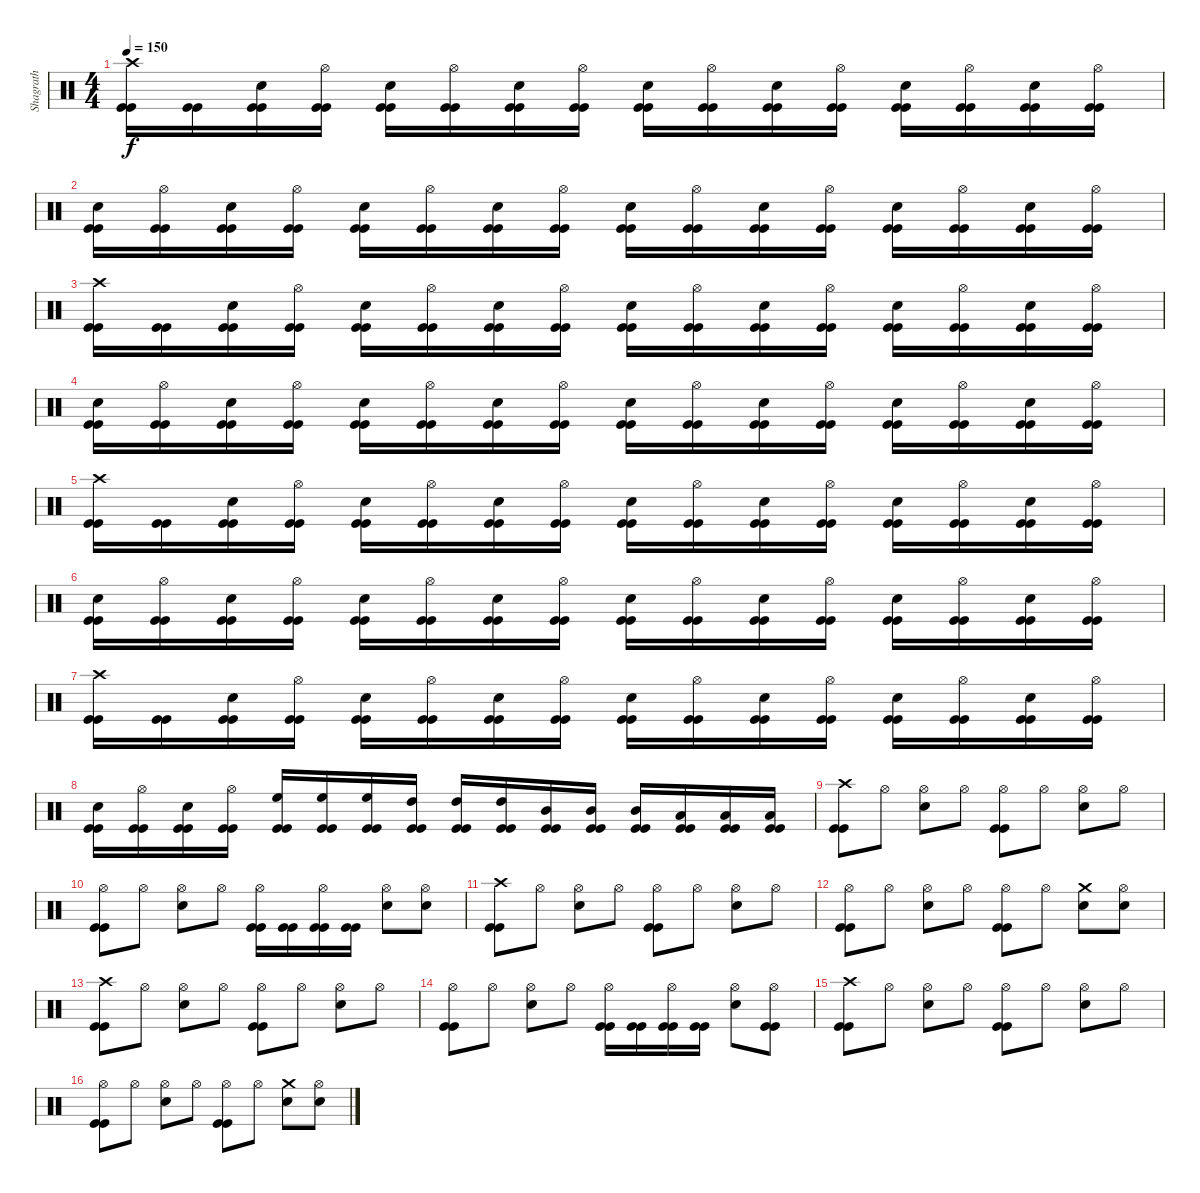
\track ("Shagrath" "Shagrath") {instrument percussion}
\staff {score}
\articulation defaults
\ts (4 4)
\tempo 150
\clef neutral
\ks c
("Kick (hit)" "Kick (hit)" "Crash high (hit)").16{dy f} ("Kick (hit)" "Kick (hit)").16 ("Kick (hit)" "Kick (hit)" "Electric Snare (hit)").16 ("Kick (hit)" "Kick (hit)" "Hi-Hat (open)").16 ("Kick (hit)" "Kick (hit)" "Electric Snare (hit)").16 ("Kick (hit)" "Kick (hit)" "Hi-Hat (open)").16 ("Kick (hit)" "Kick (hit)" "Electric Snare (hit)").16 ("Kick (hit)" "Kick (hit)" "Hi-Hat (open)").16 ("Kick (hit)" "Kick (hit)" "Electric Snare (hit)").16 ("Kick (hit)" "Kick (hit)" "Hi-Hat (open)").16 ("Kick (hit)" "Kick (hit)" "Electric Snare (hit)").16 ("Kick (hit)" "Kick (hit)" "Hi-Hat (open)").16 ("Kick (hit)" "Kick (hit)" "Electric Snare (hit)").16 ("Kick (hit)" "Kick (hit)" "Hi-Hat (open)").16 ("Kick (hit)" "Kick (hit)" "Electric Snare (hit)").16 ("Kick (hit)" "Kick (hit)" "Hi-Hat (open)").16 |
("Kick (hit)" "Kick (hit)" "Electric Snare (hit)").16 ("Kick (hit)" "Kick (hit)" "Hi-Hat (open)").16 ("Kick (hit)" "Kick (hit)" "Electric Snare (hit)").16 ("Kick (hit)" "Kick (hit)" "Hi-Hat (open)").16 ("Kick (hit)" "Kick (hit)" "Electric Snare (hit)").16 ("Kick (hit)" "Kick (hit)" "Hi-Hat (open)").16 ("Kick (hit)" "Kick (hit)" "Electric Snare (hit)").16 ("Kick (hit)" "Kick (hit)" "Hi-Hat (open)").16 ("Kick (hit)" "Kick (hit)" "Electric Snare (hit)").16 ("Kick (hit)" "Kick (hit)" "Hi-Hat (open)").16 ("Kick (hit)" "Kick (hit)" "Electric Snare (hit)").16 ("Kick (hit)" "Kick (hit)" "Hi-Hat (open)").16 ("Kick (hit)" "Kick (hit)" "Electric Snare (hit)").16 ("Kick (hit)" "Kick (hit)" "Hi-Hat (open)").16 ("Kick (hit)" "Kick (hit)" "Electric Snare (hit)").16 ("Kick (hit)" "Kick (hit)" "Hi-Hat (open)").16 |
("Kick (hit)" "Kick (hit)" "Crash high (hit)").16 ("Kick (hit)" "Kick (hit)").16 ("Kick (hit)" "Kick (hit)" "Electric Snare (hit)").16 ("Kick (hit)" "Kick (hit)" "Hi-Hat (open)").16 ("Kick (hit)" "Kick (hit)" "Electric Snare (hit)").16 ("Kick (hit)" "Kick (hit)" "Hi-Hat (open)").16 ("Kick (hit)" "Kick (hit)" "Electric Snare (hit)").16 ("Kick (hit)" "Kick (hit)" "Hi-Hat (open)").16 ("Kick (hit)" "Kick (hit)" "Electric Snare (hit)").16 ("Kick (hit)" "Kick (hit)" "Hi-Hat (open)").16 ("Kick (hit)" "Kick (hit)" "Electric Snare (hit)").16 ("Kick (hit)" "Kick (hit)" "Hi-Hat (open)").16 ("Kick (hit)" "Kick (hit)" "Electric Snare (hit)").16 ("Kick (hit)" "Kick (hit)" "Hi-Hat (open)").16 ("Kick (hit)" "Kick (hit)" "Electric Snare (hit)").16 ("Kick (hit)" "Kick (hit)" "Hi-Hat (open)").16 |
("Kick (hit)" "Kick (hit)" "Electric Snare (hit)").16 ("Kick (hit)" "Kick (hit)" "Hi-Hat (open)").16 ("Kick (hit)" "Kick (hit)" "Electric Snare (hit)").16 ("Kick (hit)" "Kick (hit)" "Hi-Hat (open)").16 ("Kick (hit)" "Kick (hit)" "Electric Snare (hit)").16 ("Kick (hit)" "Kick (hit)" "Hi-Hat (open)").16 ("Kick (hit)" "Kick (hit)" "Electric Snare (hit)").16 ("Kick (hit)" "Kick (hit)" "Hi-Hat (open)").16 ("Kick (hit)" "Kick (hit)" "Electric Snare (hit)").16 ("Kick (hit)" "Kick (hit)" "Hi-Hat (open)").16 ("Kick (hit)" "Kick (hit)" "Electric Snare (hit)").16 ("Kick (hit)" "Kick (hit)" "Hi-Hat (open)").16 ("Kick (hit)" "Kick (hit)" "Electric Snare (hit)").16 ("Kick (hit)" "Kick (hit)" "Hi-Hat (open)").16 ("Kick (hit)" "Kick (hit)" "Electric Snare (hit)").16 ("Kick (hit)" "Kick (hit)" "Hi-Hat (open)").16 |
("Kick (hit)" "Kick (hit)" "Crash high (hit)").16 ("Kick (hit)" "Kick (hit)").16 ("Kick (hit)" "Kick (hit)" "Electric Snare (hit)").16 ("Kick (hit)" "Kick (hit)" "Hi-Hat (open)").16 ("Kick (hit)" "Kick (hit)" "Electric Snare (hit)").16 ("Kick (hit)" "Kick (hit)" "Hi-Hat (open)").16 ("Kick (hit)" "Kick (hit)" "Electric Snare (hit)").16 ("Kick (hit)" "Kick (hit)" "Hi-Hat (open)").16 ("Kick (hit)" "Kick (hit)" "Electric Snare (hit)").16 ("Kick (hit)" "Kick (hit)" "Hi-Hat (open)").16 ("Kick (hit)" "Kick (hit)" "Electric Snare (hit)").16 ("Kick (hit)" "Kick (hit)" "Hi-Hat (open)").16 ("Kick (hit)" "Kick (hit)" "Electric Snare (hit)").16 ("Kick (hit)" "Kick (hit)" "Hi-Hat (open)").16 ("Kick (hit)" "Kick (hit)" "Electric Snare (hit)").16 ("Kick (hit)" "Kick (hit)" "Hi-Hat (open)").16 |
("Kick (hit)" "Kick (hit)" "Electric Snare (hit)").16 ("Kick (hit)" "Kick (hit)" "Hi-Hat (open)").16 ("Kick (hit)" "Kick (hit)" "Electric Snare (hit)").16 ("Kick (hit)" "Kick (hit)" "Hi-Hat (open)").16 ("Kick (hit)" "Kick (hit)" "Electric Snare (hit)").16 ("Kick (hit)" "Kick (hit)" "Hi-Hat (open)").16 ("Kick (hit)" "Kick (hit)" "Electric Snare (hit)").16 ("Kick (hit)" "Kick (hit)" "Hi-Hat (open)").16 ("Kick (hit)" "Kick (hit)" "Electric Snare (hit)").16 ("Kick (hit)" "Kick (hit)" "Hi-Hat (open)").16 ("Kick (hit)" "Kick (hit)" "Electric Snare (hit)").16 ("Kick (hit)" "Kick (hit)" "Hi-Hat (open)").16 ("Kick (hit)" "Kick (hit)" "Electric Snare (hit)").16 ("Kick (hit)" "Kick (hit)" "Hi-Hat (open)").16 ("Kick (hit)" "Kick (hit)" "Electric Snare (hit)").16 ("Kick (hit)" "Kick (hit)" "Hi-Hat (open)").16 |
("Kick (hit)" "Kick (hit)" "Crash high (hit)").16 ("Kick (hit)" "Kick (hit)").16 ("Kick (hit)" "Kick (hit)" "Electric Snare (hit)").16 ("Kick (hit)" "Kick (hit)" "Hi-Hat (open)").16 ("Kick (hit)" "Kick (hit)" "Electric Snare (hit)").16 ("Kick (hit)" "Kick (hit)" "Hi-Hat (open)").16 ("Kick (hit)" "Kick (hit)" "Electric Snare (hit)").16 ("Kick (hit)" "Kick (hit)" "Hi-Hat (open)").16 ("Kick (hit)" "Kick (hit)" "Electric Snare (hit)").16 ("Kick (hit)" "Kick (hit)" "Hi-Hat (open)").16 ("Kick (hit)" "Kick (hit)" "Electric Snare (hit)").16 ("Kick (hit)" "Kick (hit)" "Hi-Hat (open)").16 ("Kick (hit)" "Kick (hit)" "Electric Snare (hit)").16 ("Kick (hit)" "Kick (hit)" "Hi-Hat (open)").16 ("Kick (hit)" "Kick (hit)" "Electric Snare (hit)").16 ("Kick (hit)" "Kick (hit)" "Hi-Hat (open)").16 |
("Kick (hit)" "Kick (hit)" "Electric Snare (hit)").16 ("Kick (hit)" "Kick (hit)" "Hi-Hat (open)").16 ("Kick (hit)" "Kick (hit)" "Electric Snare (hit)").16 ("Kick (hit)" "Kick (hit)" "Hi-Hat (open)").16 ("Kick (hit)" "Kick (hit)" "High Floor Tom (hit)").16 ("Kick (hit)" "Kick (hit)" "High Floor Tom (hit)").16 ("Kick (hit)" "Kick (hit)" "High Floor Tom (hit)").16 ("Kick (hit)" "Kick (hit)" "High Tom (hit)").16 ("Kick (hit)" "Kick (hit)" "High Tom (hit)").16 ("Kick (hit)" "Kick (hit)" "High Tom (hit)").16 ("Kick (hit)" "Kick (hit)" "Mid Tom (hit)").16 ("Kick (hit)" "Kick (hit)" "Mid Tom (hit)").16 ("Kick (hit)" "Kick (hit)" "Mid Tom (hit)").16 ("Kick (hit)" "Kick (hit)" "Low Tom (hit)").16 ("Kick (hit)" "Kick (hit)" "Low Tom (hit)").16 ("Kick (hit)" "Kick (hit)" "Low Tom (hit)").16 |
("Kick (hit)" "Kick (hit)" "Crash high (hit)").8 "Hi-Hat (open)".8 ("Electric Snare (hit)" "Hi-Hat (open)").8 "Hi-Hat (open)".8 ("Kick (hit)" "Kick (hit)" "Hi-Hat (open)").8 "Hi-Hat (open)".8 ("Electric Snare (hit)" "Hi-Hat (open)").8 "Hi-Hat (open)".8 |
("Kick (hit)" "Kick (hit)" "Hi-Hat (open)").8 "Hi-Hat (open)".8 ("Electric Snare (hit)" "Hi-Hat (open)").8 "Hi-Hat (open)".8 ("Kick (hit)" "Kick (hit)" "Hi-Hat (open)").16 ("Kick (hit)" "Kick (hit)").16 ("Kick (hit)" "Kick (hit)" "Hi-Hat (open)").16 ("Kick (hit)" "Kick (hit)").16 ("Electric Snare (hit)" "Hi-Hat (open)").8 ("Electric Snare (hit)" "Hi-Hat (open)").8 |
("Kick (hit)" "Kick (hit)" "Crash high (hit)").8 "Hi-Hat (open)".8 ("Electric Snare (hit)" "Hi-Hat (open)").8 "Hi-Hat (open)".8 ("Kick (hit)" "Kick (hit)" "Hi-Hat (open)").8 "Hi-Hat (open)".8 ("Electric Snare (hit)" "Hi-Hat (open)").8 "Hi-Hat (open)".8 |
("Kick (hit)" "Kick (hit)" "Hi-Hat (open)").8 "Hi-Hat (open)".8 ("Electric Snare (hit)" "Hi-Hat (open)").8 "Hi-Hat (open)".8 ("Kick (hit)" "Kick (hit)" "Hi-Hat (open)").8 "Hi-Hat (open)".8 ("Electric Snare (hit)" "Crash medium (hit)").8 ("Electric Snare (hit)" "Hi-Hat (open)").8 |
("Kick (hit)" "Kick (hit)" "Crash high (hit)").8 "Hi-Hat (open)".8 ("Electric Snare (hit)" "Hi-Hat (open)").8 "Hi-Hat (open)".8 ("Kick (hit)" "Kick (hit)" "Hi-Hat (open)").8 "Hi-Hat (open)".8 ("Electric Snare (hit)" "Hi-Hat (open)").8 "Hi-Hat (open)".8 |
("Kick (hit)" "Kick (hit)" "Hi-Hat (open)").8 "Hi-Hat (open)".8 ("Electric Snare (hit)" "Hi-Hat (open)").8 "Hi-Hat (open)".8 ("Kick (hit)" "Kick (hit)" "Hi-Hat (open)").16 ("Kick (hit)" "Kick (hit)").16 ("Kick (hit)" "Kick (hit)" "Hi-Hat (open)").16 ("Kick (hit)" "Kick (hit)").16 ("Electric Snare (hit)" "Hi-Hat (open)").8 ("Kick (hit)" "Kick (hit)" "Hi-Hat (open)").8 |
("Kick (hit)" "Kick (hit)" "Crash high (hit)").8 "Hi-Hat (open)".8 ("Electric Snare (hit)" "Hi-Hat (open)").8 "Hi-Hat (open)".8 ("Kick (hit)" "Kick (hit)" "Hi-Hat (open)").8 "Hi-Hat (open)".8 ("Electric Snare (hit)" "Hi-Hat (open)").8 "Hi-Hat (open)".8 |
("Kick (hit)" "Kick (hit)" "Hi-Hat (open)").8 "Hi-Hat (open)".8 ("Electric Snare (hit)" "Hi-Hat (open)").8 "Hi-Hat (open)".8 ("Kick (hit)" "Kick (hit)" "Hi-Hat (open)").8 "Hi-Hat (open)".8 ("Electric Snare (hit)" "Crash medium (hit)").8 ("Electric Snare (hit)" "Hi-Hat (open)").8
